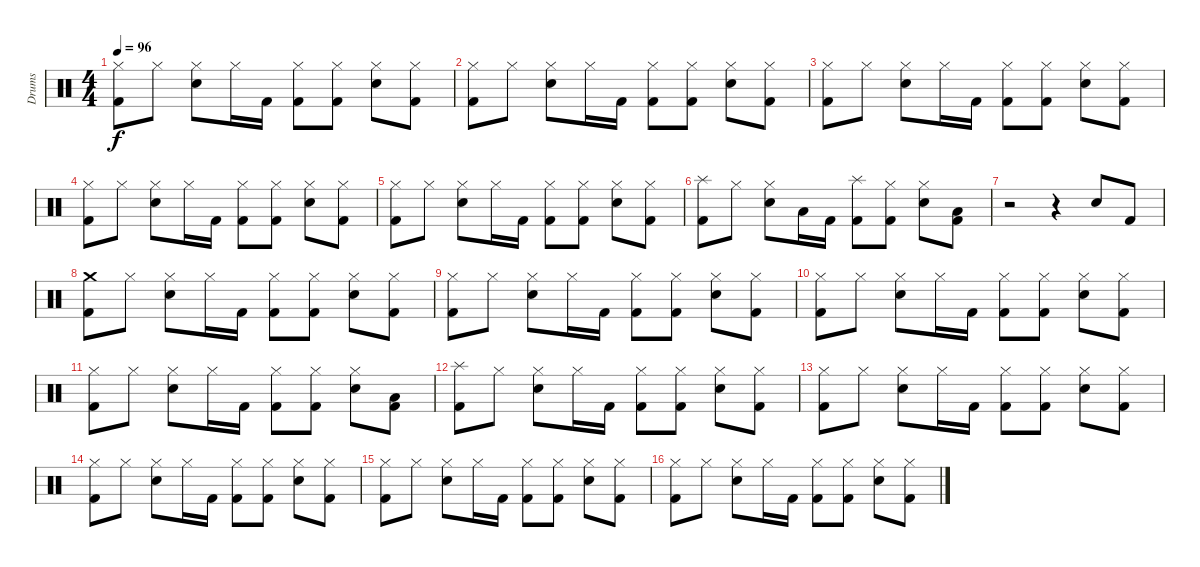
\track ("Drums" "Drums") {instrument percussion}
\staff {score}
\articulation defaults
\ts (4 4)
\tempo 96
\clef neutral
\ks c
("Hi-Hat (closed)" "Kick (hit) 2").8{dy f} "Hi-Hat (closed)".8 ("Hi-Hat (closed)" "Snare (hit) 2").8 "Hi-Hat (closed)".16 "Kick (hit) 2".16 ("Hi-Hat (closed)" "Kick (hit) 2").8 ("Hi-Hat (closed)" "Kick (hit) 2").8 ("Hi-Hat (closed)" "Snare (hit) 2").8 ("Hi-Hat (closed)" "Kick (hit) 2").8 |
("Hi-Hat (closed)" "Kick (hit) 2").8 "Hi-Hat (closed)".8 ("Hi-Hat (closed)" "Snare (hit) 2").8 "Hi-Hat (closed)".16 "Kick (hit) 2".16 ("Hi-Hat (closed)" "Kick (hit) 2").8 ("Hi-Hat (closed)" "Kick (hit) 2").8 ("Hi-Hat (closed)" "Snare (hit) 2").8 ("Hi-Hat (closed)" "Kick (hit) 2").8 |
("Hi-Hat (closed)" "Kick (hit) 2").8 "Hi-Hat (closed)".8 ("Hi-Hat (closed)" "Snare (hit) 2").8 "Hi-Hat (closed)".16 "Kick (hit) 2".16 ("Hi-Hat (closed)" "Kick (hit) 2").8 ("Hi-Hat (closed)" "Kick (hit) 2").8 ("Hi-Hat (closed)" "Snare (hit) 2").8 ("Hi-Hat (closed)" "Kick (hit) 2").8 |
("Hi-Hat (closed)" "Kick (hit) 2").8 "Hi-Hat (closed)".8 ("Hi-Hat (closed)" "Snare (hit) 2").8 "Hi-Hat (closed)".16 "Kick (hit) 2".16 ("Hi-Hat (closed)" "Kick (hit) 2").8 ("Hi-Hat (closed)" "Kick (hit) 2").8 ("Hi-Hat (closed)" "Snare (hit) 2").8 ("Hi-Hat (closed)" "Kick (hit) 2").8 |
("Hi-Hat (closed)" "Kick (hit) 2").8 "Hi-Hat (closed)".8 ("Hi-Hat (closed)" "Snare (hit) 2").8 "Hi-Hat (closed)".16 "Kick (hit) 2".16 ("Hi-Hat (closed)" "Kick (hit) 2").8 ("Hi-Hat (closed)" "Kick (hit) 2").8 ("Hi-Hat (closed)" "Snare (hit) 2").8 ("Hi-Hat (closed)" "Kick (hit) 2").8 |
("Splash (hit)" "Kick (hit) 2").8 "Hi-Hat (closed)".8 ("Hi-Hat (closed)" "Snare (hit) 2").8 "Low Tom (hit)".16 "Kick (hit) 2".16 ("Splash (hit)" "Kick (hit) 2").8 ("Hi-Hat (closed)" "Kick (hit) 2").8 ("Hi-Hat (closed)" "Snare (hit) 2").8 ("Low Tom (hit)" "Kick (hit) 2").8 |
r.2 r.4 "Snare (hit) 2".8 "Kick (hit) 2".8 |
("Crash medium (hit)" "Kick (hit) 2").8 "Hi-Hat (closed)".8 ("Hi-Hat (closed)" "Snare (hit) 2").8 "Hi-Hat (closed)".16 "Kick (hit) 2".16 ("Hi-Hat (closed)" "Kick (hit) 2").8 ("Hi-Hat (closed)" "Kick (hit) 2").8 ("Hi-Hat (closed)" "Snare (hit) 2").8 ("Hi-Hat (closed)" "Kick (hit) 2").8 |
("Hi-Hat (closed)" "Kick (hit) 2").8 "Hi-Hat (closed)".8 ("Hi-Hat (closed)" "Snare (hit) 2").8 "Hi-Hat (closed)".16 "Kick (hit) 2".16 ("Hi-Hat (closed)" "Kick (hit) 2").8 ("Hi-Hat (closed)" "Kick (hit) 2").8 ("Hi-Hat (closed)" "Snare (hit) 2").8 ("Hi-Hat (closed)" "Kick (hit) 2").8 |
("Hi-Hat (closed)" "Kick (hit) 2").8 "Hi-Hat (closed)".8 ("Hi-Hat (closed)" "Snare (hit) 2").8 "Hi-Hat (closed)".16 "Kick (hit) 2".16 ("Hi-Hat (closed)" "Kick (hit) 2").8 ("Hi-Hat (closed)" "Kick (hit) 2").8 ("Hi-Hat (closed)" "Snare (hit) 2").8 ("Hi-Hat (closed)" "Kick (hit) 2").8 |
("Hi-Hat (closed)" "Kick (hit) 2").8 "Hi-Hat (closed)".8 ("Hi-Hat (closed)" "Snare (hit) 2").8 "Hi-Hat (closed)".16 "Kick (hit) 2".16 ("Hi-Hat (closed)" "Kick (hit) 2").8 ("Hi-Hat (closed)" "Kick (hit) 2").8 ("Hi-Hat (closed)" "Snare (hit) 2").8 ("Low Tom (hit)" "Kick (hit) 2").8 |
("Splash (hit)" "Kick (hit) 2").8 "Hi-Hat (closed)".8 ("Hi-Hat (closed)" "Snare (hit) 2").8 "Hi-Hat (closed)".16 "Kick (hit) 2".16 ("Hi-Hat (closed)" "Kick (hit) 2").8 ("Hi-Hat (closed)" "Kick (hit) 2").8 ("Hi-Hat (closed)" "Snare (hit) 2").8 ("Hi-Hat (closed)" "Kick (hit) 2").8 |
("Hi-Hat (closed)" "Kick (hit) 2").8 "Hi-Hat (closed)".8 ("Hi-Hat (closed)" "Snare (hit) 2").8 "Hi-Hat (closed)".16 "Kick (hit) 2".16 ("Hi-Hat (closed)" "Kick (hit) 2").8 ("Hi-Hat (closed)" "Kick (hit) 2").8 ("Hi-Hat (closed)" "Snare (hit) 2").8 ("Hi-Hat (closed)" "Kick (hit) 2").8 |
("Hi-Hat (closed)" "Kick (hit) 2").8 "Hi-Hat (closed)".8 ("Hi-Hat (closed)" "Snare (hit) 2").8 "Hi-Hat (closed)".16 "Kick (hit) 2".16 ("Hi-Hat (closed)" "Kick (hit) 2").8 ("Hi-Hat (closed)" "Kick (hit) 2").8 ("Hi-Hat (closed)" "Snare (hit) 2").8 ("Hi-Hat (closed)" "Kick (hit) 2").8 |
("Hi-Hat (closed)" "Kick (hit) 2").8 "Hi-Hat (closed)".8 ("Hi-Hat (closed)" "Snare (hit) 2").8 "Hi-Hat (closed)".16 "Kick (hit) 2".16 ("Hi-Hat (closed)" "Kick (hit) 2").8 ("Hi-Hat (closed)" "Kick (hit) 2").8 ("Hi-Hat (closed)" "Snare (hit) 2").8 ("Hi-Hat (closed)" "Kick (hit) 2").8 |
("Hi-Hat (closed)" "Kick (hit) 2").8 "Hi-Hat (closed)".8 ("Hi-Hat (closed)" "Snare (hit) 2").8 "Hi-Hat (closed)".16 "Kick (hit) 2".16 ("Hi-Hat (closed)" "Kick (hit) 2").8 ("Hi-Hat (closed)" "Kick (hit) 2").8 ("Hi-Hat (closed)" "Snare (hit) 2").8 ("Hi-Hat (closed)" "Kick (hit) 2").8
